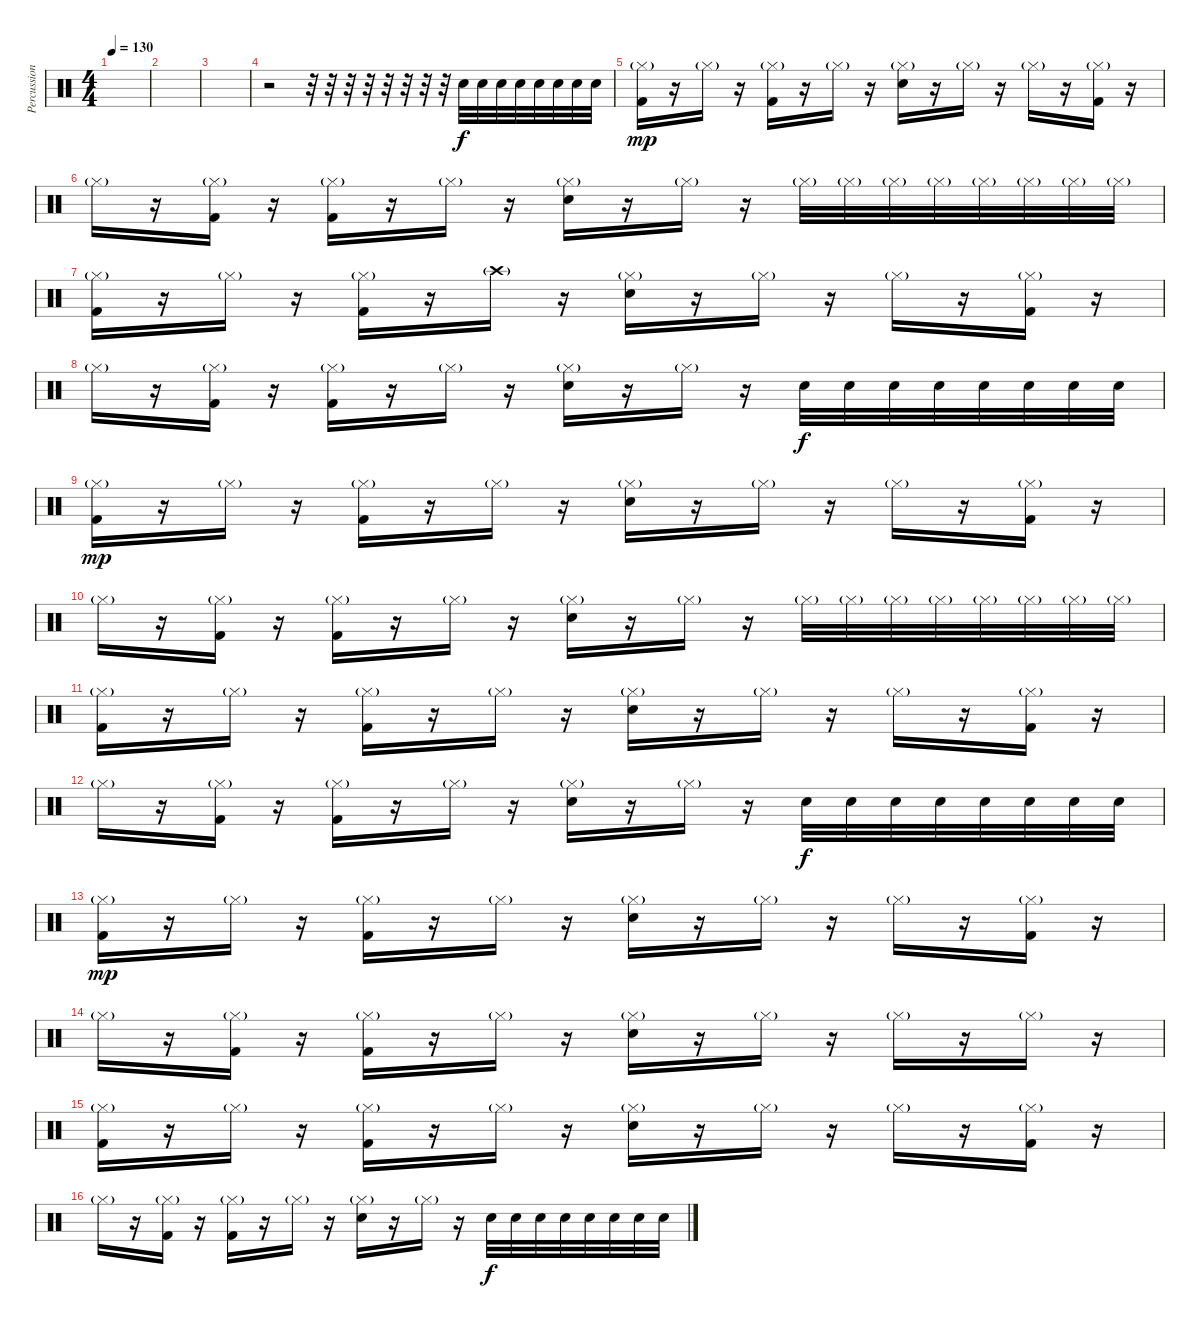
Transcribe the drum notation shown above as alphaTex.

\track ("Percussion" "Percussion") {instrument percussion}
\staff {score}
\articulation defaults
\ts (4 4)
\tempo 130
\clef neutral
\ks c
|
|
|
r.2 r.32 r.32 r.32 r.32 r.32 r.32 r.32 r.32 "Snare (hit) 2".32 "Snare (hit) 2".32 "Snare (hit) 2".32 "Snare (hit) 2".32 "Snare (hit) 2".32 "Snare (hit) 2".32 "Snare (hit) 2".32 "Snare (hit) 2".32 |
("Hi-Hat (closed)"{g} "Kick (hit) 2").16{dy mp} r.16 "Hi-Hat (closed)"{g}.16 r.16 ("Hi-Hat (closed)"{g} "Kick (hit) 2").16 r.16 "Hi-Hat (closed)"{g}.16 r.16 ("Hi-Hat (closed)"{g} "Snare (hit) 2").16 r.16 "Hi-Hat (closed)"{g}.16 r.16 "Hi-Hat (closed)"{g}.16 r.16 ("Hi-Hat (closed)"{g} "Kick (hit) 2").16 r.16 |
"Hi-Hat (closed)"{g}.16 r.16 ("Hi-Hat (closed)"{g} "Kick (hit) 2").16 r.16 ("Hi-Hat (closed)"{g} "Kick (hit) 2").16 r.16 "Hi-Hat (closed)"{g}.16 r.16 ("Hi-Hat (closed)"{g} "Snare (hit) 2").16 r.16 "Hi-Hat (closed)"{g}.16 r.16 "Hi-Hat (closed)"{g}.32 "Hi-Hat (closed)"{g}.32 "Hi-Hat (closed)"{g}.32 "Hi-Hat (closed)"{g}.32 "Hi-Hat (closed)"{g}.32 "Hi-Hat (closed)"{g}.32 "Hi-Hat (closed)"{g}.32 "Hi-Hat (closed)"{g}.32 |
("Hi-Hat (closed)"{g} "Kick (hit) 2").16 r.16 "Hi-Hat (closed)"{g}.16 r.16 ("Hi-Hat (closed)"{g} "Kick (hit) 2").16 r.16 "Crash high (hit)"{g}.16 r.16 ("Hi-Hat (closed)"{g} "Snare (hit) 2").16 r.16 "Hi-Hat (closed)"{g}.16 r.16 "Hi-Hat (closed)"{g}.16 r.16 ("Hi-Hat (closed)"{g} "Kick (hit) 2").16 r.16 |
"Hi-Hat (closed)"{g}.16 r.16 ("Hi-Hat (closed)"{g} "Kick (hit) 2").16 r.16 ("Hi-Hat (closed)"{g} "Kick (hit) 2").16 r.16 "Hi-Hat (closed)"{g}.16 r.16 ("Hi-Hat (closed)"{g} "Snare (hit) 2").16 r.16 "Hi-Hat (closed)"{g}.16 r.16 "Snare (hit) 2".32{dy f} "Snare (hit) 2".32 "Snare (hit) 2".32 "Snare (hit) 2".32 "Snare (hit) 2".32 "Snare (hit) 2".32 "Snare (hit) 2".32 "Snare (hit) 2".32 |
("Hi-Hat (closed)"{g} "Kick (hit) 2").16{dy mp} r.16 "Hi-Hat (closed)"{g}.16 r.16 ("Hi-Hat (closed)"{g} "Kick (hit) 2").16 r.16 "Hi-Hat (closed)"{g}.16 r.16 ("Hi-Hat (closed)"{g} "Snare (hit) 2").16 r.16 "Hi-Hat (closed)"{g}.16 r.16 "Hi-Hat (closed)"{g}.16 r.16 ("Hi-Hat (closed)"{g} "Kick (hit) 2").16 r.16 |
"Hi-Hat (closed)"{g}.16 r.16 ("Hi-Hat (closed)"{g} "Kick (hit) 2").16 r.16 ("Hi-Hat (closed)"{g} "Kick (hit) 2").16 r.16 "Hi-Hat (closed)"{g}.16 r.16 ("Hi-Hat (closed)"{g} "Snare (hit) 2").16 r.16 "Hi-Hat (closed)"{g}.16 r.16 "Hi-Hat (closed)"{g}.32 "Hi-Hat (closed)"{g}.32 "Hi-Hat (closed)"{g}.32 "Hi-Hat (closed)"{g}.32 "Hi-Hat (closed)"{g}.32 "Hi-Hat (closed)"{g}.32 "Hi-Hat (closed)"{g}.32 "Hi-Hat (closed)"{g}.32 |
("Hi-Hat (closed)"{g} "Kick (hit) 2").16 r.16 "Hi-Hat (closed)"{g}.16 r.16 ("Hi-Hat (closed)"{g} "Kick (hit) 2").16 r.16 "Hi-Hat (closed)"{g}.16 r.16 ("Hi-Hat (closed)"{g} "Snare (hit) 2").16 r.16 "Hi-Hat (closed)"{g}.16 r.16 "Hi-Hat (closed)"{g}.16 r.16 ("Hi-Hat (closed)"{g} "Kick (hit) 2").16 r.16 |
"Hi-Hat (closed)"{g}.16 r.16 ("Hi-Hat (closed)"{g} "Kick (hit) 2").16 r.16 ("Hi-Hat (closed)"{g} "Kick (hit) 2").16 r.16 "Hi-Hat (closed)"{g}.16 r.16 ("Hi-Hat (closed)"{g} "Snare (hit) 2").16 r.16 "Hi-Hat (closed)"{g}.16 r.16 "Snare (hit) 2".32{dy f} "Snare (hit) 2".32 "Snare (hit) 2".32 "Snare (hit) 2".32 "Snare (hit) 2".32 "Snare (hit) 2".32 "Snare (hit) 2".32 "Snare (hit) 2".32 |
("Hi-Hat (closed)"{g} "Kick (hit) 2").16{dy mp} r.16 "Hi-Hat (closed)"{g}.16 r.16 ("Hi-Hat (closed)"{g} "Kick (hit) 2").16 r.16 "Hi-Hat (closed)"{g}.16 r.16 ("Hi-Hat (closed)"{g} "Snare (hit) 2").16 r.16 "Hi-Hat (closed)"{g}.16 r.16 "Hi-Hat (closed)"{g}.16 r.16 ("Hi-Hat (closed)"{g} "Kick (hit) 2").16 r.16 |
"Hi-Hat (closed)"{g}.16 r.16 ("Hi-Hat (closed)"{g} "Kick (hit) 2").16 r.16 ("Hi-Hat (closed)"{g} "Kick (hit) 2").16 r.16 "Hi-Hat (closed)"{g}.16 r.16 ("Hi-Hat (closed)"{g} "Snare (hit) 2").16 r.16 "Hi-Hat (closed)"{g}.16 r.16 "Hi-Hat (closed)"{g}.16 r.16 "Hi-Hat (closed)"{g}.16 r.16 |
("Hi-Hat (closed)"{g} "Kick (hit) 2").16 r.16 "Hi-Hat (closed)"{g}.16 r.16 ("Hi-Hat (closed)"{g} "Kick (hit) 2").16 r.16 "Hi-Hat (closed)"{g}.16 r.16 ("Hi-Hat (closed)"{g} "Snare (hit) 2").16 r.16 "Hi-Hat (closed)"{g}.16 r.16 "Hi-Hat (closed)"{g}.16 r.16 ("Hi-Hat (closed)"{g} "Kick (hit) 2").16 r.16 |
"Hi-Hat (closed)"{g}.16 r.16 ("Hi-Hat (closed)"{g} "Kick (hit) 2").16 r.16 ("Hi-Hat (closed)"{g} "Kick (hit) 2").16 r.16 "Hi-Hat (closed)"{g}.16 r.16 ("Hi-Hat (closed)"{g} "Snare (hit) 2").16 r.16 "Hi-Hat (closed)"{g}.16 r.16 "Snare (hit) 2".32{dy f} "Snare (hit) 2".32 "Snare (hit) 2".32 "Snare (hit) 2".32 "Snare (hit) 2".32 "Snare (hit) 2".32 "Snare (hit) 2".32 "Snare (hit) 2".32
